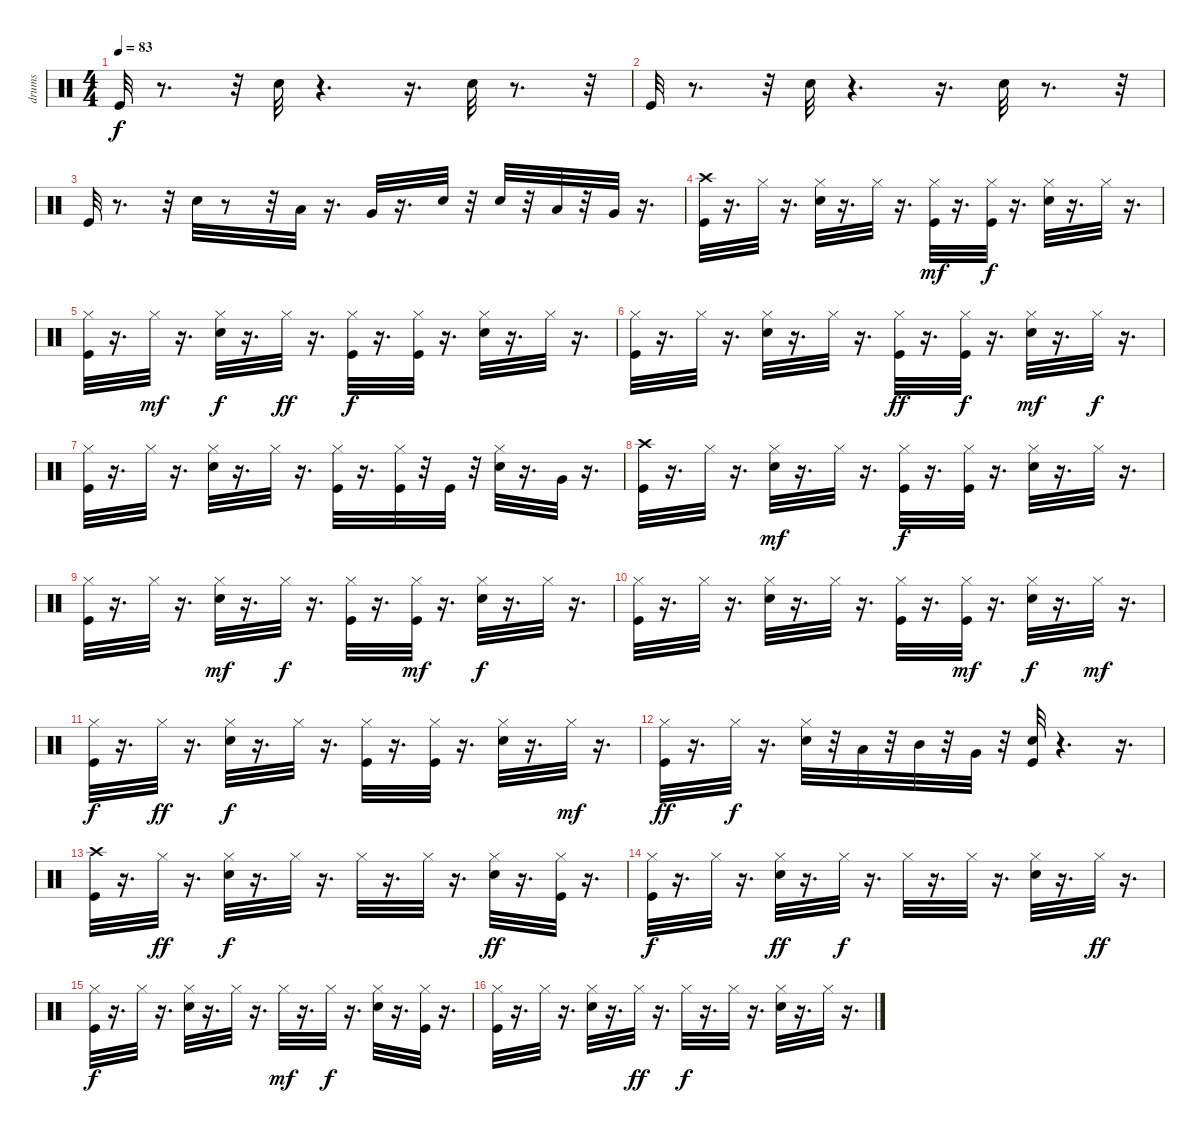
\track ("drums" "drums") {instrument percussion}
\staff {score}
\articulation defaults
\ts (4 4)
\tempo 83
\clef neutral
\ks c "Kick (hit)".32{dy f}
r.8{d} r.32 "Electric Snare (hit)".32 r.4{d} r.16{d} "Electric Snare (hit)".32 r.8{d} r.32 |
"Kick (hit)".32 r.8{d} r.32 "Electric Snare (hit)".32 r.4{d} r.16{d} "Electric Snare (hit)".32 r.8{d} r.32 |
"Kick (hit)".32 r.8{d} r.32 "Electric Snare (hit)".32 r.8 r.32 "Low Tom (hit)".32 r.16{d} "Very Low Tom (hit)".32 r.16{d} "Electric Snare (hit)".32 r.32 "Electric Snare (hit)".32 r.32 "Low Tom (hit)".32 r.32 "Very Low Tom (hit)".32 r.16{d} |
("Crash high (hit)" "Kick (hit)").32 r.16{d} "Hi-Hat (closed)".32 r.16{d} ("Electric Snare (hit)" "Hi-Hat (closed)").32 r.16{d} "Hi-Hat (closed)".32 r.16{d} ("Hi-Hat (closed)" "Kick (hit)").32{dy mf} r.16{d} ("Kick (hit)" "Hi-Hat (closed)").32{dy f} r.16{d} ("Electric Snare (hit)" "Hi-Hat (closed)").32 r.16{d} "Hi-Hat (closed)".32 r.16{d} |
("Kick (hit)" "Hi-Hat (closed)").32 r.16{d} "Hi-Hat (closed)".32{dy mf} r.16{d} ("Electric Snare (hit)" "Hi-Hat (closed)").32{dy f} r.16{d} "Hi-Hat (closed)".32{dy ff} r.16{d} ("Kick (hit)" "Hi-Hat (closed)").32{dy f} r.16{d} ("Hi-Hat (closed)" "Kick (hit)").32 r.16{d} ("Hi-Hat (closed)" "Electric Snare (hit)").32 r.16{d} "Hi-Hat (closed)".32 r.16{d} |
("Hi-Hat (closed)" "Kick (hit)").32 r.16{d} "Hi-Hat (closed)".32 r.16{d} ("Electric Snare (hit)" "Hi-Hat (closed)").32 r.16{d} "Hi-Hat (closed)".32 r.16{d} ("Hi-Hat (closed)" "Kick (hit)").32{dy ff} r.16{d} ("Kick (hit)" "Hi-Hat (closed)").32{dy f} r.16{d} ("Hi-Hat (closed)" "Electric Snare (hit)").32{dy mf} r.16{d} "Hi-Hat (closed)".32{dy f} r.16{d} |
("Hi-Hat (closed)" "Kick (hit)").32 r.16{d} "Hi-Hat (closed)".32 r.16{d} ("Electric Snare (hit)" "Hi-Hat (closed)").32 r.16{d} "Hi-Hat (closed)".32 r.16{d} ("Kick (hit)" "Hi-Hat (closed)").32 r.16{d} ("Hi-Hat (closed)" "Kick (hit)").32 r.32 "Kick (hit)".32 r.32 ("Hi-Hat (closed)" "Electric Snare (hit)").32 r.16{d} "Very Low Tom (hit)".32 r.16{d} |
("Crash high (hit)" "Kick (hit)").32 r.16{d} "Hi-Hat (closed)".32 r.16{d} ("Hi-Hat (closed)" "Electric Snare (hit)").32{dy mf} r.16{d} "Hi-Hat (closed)".32 r.16{d} ("Hi-Hat (closed)" "Kick (hit)").32{dy f} r.16{d} ("Kick (hit)" "Hi-Hat (closed)").32 r.16{d} ("Electric Snare (hit)" "Hi-Hat (closed)").32 r.16{d} "Hi-Hat (closed)".32 r.16{d} |
("Hi-Hat (closed)" "Kick (hit)").32 r.16{d} "Hi-Hat (closed)".32 r.16{d} ("Electric Snare (hit)" "Hi-Hat (closed)").32{dy mf} r.16{d} "Hi-Hat (closed)".32{dy f} r.16{d} ("Kick (hit)" "Hi-Hat (closed)").32 r.16{d} ("Hi-Hat (closed)" "Kick (hit)").32{dy mf} r.16{d} ("Hi-Hat (closed)" "Electric Snare (hit)").32{dy f} r.16{d} "Hi-Hat (closed)".32 r.16{d} |
("Hi-Hat (closed)" "Kick (hit)").32 r.16{d} "Hi-Hat (closed)".32 r.16{d} ("Electric Snare (hit)" "Hi-Hat (closed)").32 r.16{d} "Hi-Hat (closed)".32 r.16{d} ("Kick (hit)" "Hi-Hat (closed)").32 r.16{d} ("Kick (hit)" "Hi-Hat (closed)").32{dy mf} r.16{d} ("Hi-Hat (closed)" "Electric Snare (hit)").32{dy f} r.16{d} "Hi-Hat (closed)".32{dy mf} r.16{d} |
("Hi-Hat (closed)" "Kick (hit)").32{dy f} r.16{d} "Hi-Hat (closed)".32{dy ff} r.16{d} ("Hi-Hat (closed)" "Electric Snare (hit)").32{dy f} r.16{d} "Hi-Hat (closed)".32 r.16{d} ("Kick (hit)" "Hi-Hat (closed)").32 r.16{d} ("Kick (hit)" "Hi-Hat (closed)").32 r.16{d} ("Electric Snare (hit)" "Hi-Hat (closed)").32 r.16{d} "Hi-Hat (closed)".32{dy mf} r.16{d} |
("Kick (hit)" "Hi-Hat (closed)").32{dy ff} r.16{d} "Hi-Hat (closed)".32{dy f} r.16{d} ("Hi-Hat (closed)" "Electric Snare (hit)").32 r.32 "Low Tom (hit)".32 r.32 "Mid Tom (hit)".32 r.32 "Very Low Tom (hit)".32 r.32 ("Electric Snare (hit)" "Kick (hit)").32 r.4{d} r.16{d} |
("Crash high (hit)" "Kick (hit)").32 r.16{d} "Hi-Hat (closed)".32{dy ff} r.16{d} ("Electric Snare (hit)" "Hi-Hat (closed)").32{dy f} r.16{d} "Hi-Hat (closed)".32 r.16{d} "Hi-Hat (closed)".32 r.16{d} "Hi-Hat (closed)".32 r.16{d} ("Hi-Hat (closed)" "Electric Snare (hit)").32{dy ff} r.16{d} ("Kick (hit)" "Hi-Hat (closed)").32 r.16{d} |
("Kick (hit)" "Hi-Hat (closed)").32{dy f} r.16{d} "Hi-Hat (closed)".32 r.16{d} ("Hi-Hat (closed)" "Electric Snare (hit)").32{dy ff} r.16{d} "Hi-Hat (closed)".32{dy f} r.16{d} "Hi-Hat (closed)".32 r.16{d} "Hi-Hat (closed)".32 r.16{d} ("Electric Snare (hit)" "Hi-Hat (closed)").32 r.16{d} "Hi-Hat (closed)".32{dy ff} r.16{d} |
("Kick (hit)" "Hi-Hat (closed)").32{dy f} r.16{d} "Hi-Hat (closed)".32 r.16{d} ("Electric Snare (hit)" "Hi-Hat (closed)").32 r.16{d} "Hi-Hat (closed)".32 r.16{d} "Hi-Hat (closed)".32{dy mf} r.16{d} "Hi-Hat (closed)".32{dy f} r.16{d} ("Electric Snare (hit)" "Hi-Hat (closed)").32 r.16{d} ("Kick (hit)" "Hi-Hat (closed)").32 r.16{d} |
("Kick (hit)" "Hi-Hat (closed)").32 r.16{d} "Hi-Hat (closed)".32 r.16{d} ("Electric Snare (hit)" "Hi-Hat (closed)").32 r.16{d} "Hi-Hat (closed)".32{dy ff} r.16{d} "Hi-Hat (closed)".32{dy f} r.16{d} "Hi-Hat (closed)".32 r.16{d} ("Electric Snare (hit)" "Hi-Hat (closed)").32 r.16{d} "Hi-Hat (closed)".32 r.16{d}
